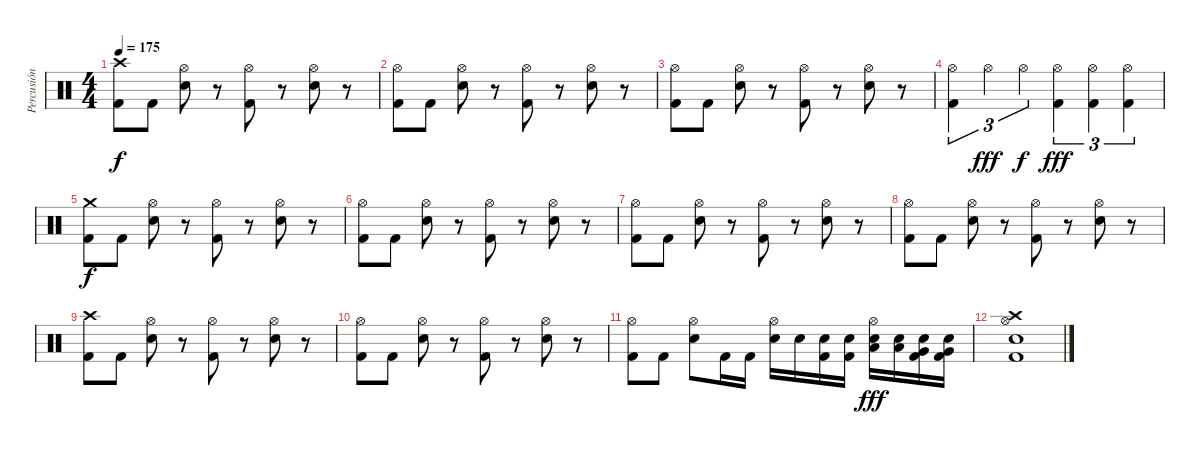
\track ("Percusión" "Percusión") {instrument percussion}
\staff {score}
\articulation defaults
\ts (4 4)
\tempo 175
\clef neutral
\ks c
("Crash high (hit)" "Kick (hit) 2").8{dy f} "Kick (hit) 2".8 ("Hi-Hat (open)" "Electric Snare (hit)").8 r.8 ("Hi-Hat (open)" "Kick (hit) 2").8 r.8 ("Hi-Hat (open)" "Electric Snare (hit)").8 r.8 |
("Hi-Hat (open)" "Kick (hit) 2").8 "Kick (hit) 2".8 ("Hi-Hat (open)" "Electric Snare (hit)").8 r.8 ("Hi-Hat (open)" "Kick (hit) 2").8 r.8 ("Hi-Hat (open)" "Electric Snare (hit)").8 r.8 |
("Hi-Hat (open)" "Kick (hit) 2").8 "Kick (hit) 2".8 ("Hi-Hat (open)" "Electric Snare (hit)").8 r.8 ("Hi-Hat (open)" "Kick (hit) 2").8 r.8 ("Hi-Hat (open)" "Electric Snare (hit)").8 r.8 |
("Hi-Hat (open)" "Kick (hit) 2").4{tu (3 2)} "Hi-Hat (open)".4{tu (3 2) dy fff} "Hi-Hat (open)".4{tu (3 2) dy f} ("Hi-Hat (open)" "Kick (hit) 2").4{tu (3 2) dy fff} ("Hi-Hat (open)" "Kick (hit) 2").4{tu (3 2)} ("Hi-Hat (open)" "Kick (hit) 2").4{tu (3 2)} |
("Crash medium (hit)" "Kick (hit) 2").8{dy f} "Kick (hit) 2".8 ("Hi-Hat (open)" "Electric Snare (hit)").8 r.8 ("Hi-Hat (open)" "Kick (hit) 2").8 r.8 ("Hi-Hat (open)" "Electric Snare (hit)").8 r.8 |
("Hi-Hat (open)" "Kick (hit) 2").8 "Kick (hit) 2".8 ("Hi-Hat (open)" "Electric Snare (hit)").8 r.8 ("Hi-Hat (open)" "Kick (hit) 2").8 r.8 ("Hi-Hat (open)" "Electric Snare (hit)").8 r.8 |
("Hi-Hat (open)" "Kick (hit) 2").8 "Kick (hit) 2".8 ("Hi-Hat (open)" "Electric Snare (hit)").8 r.8 ("Hi-Hat (open)" "Kick (hit) 2").8 r.8 ("Hi-Hat (open)" "Electric Snare (hit)").8 r.8 |
("Hi-Hat (open)" "Kick (hit) 2").8 "Kick (hit) 2".8 ("Hi-Hat (open)" "Electric Snare (hit)").8 r.8 ("Hi-Hat (open)" "Kick (hit) 2").8 r.8 ("Hi-Hat (open)" "Electric Snare (hit)").8 r.8 |
("Crash high (hit)" "Kick (hit) 2").8 "Kick (hit) 2".8 ("Hi-Hat (open)" "Electric Snare (hit)").8 r.8 ("Hi-Hat (open)" "Kick (hit) 2").8 r.8 ("Hi-Hat (open)" "Electric Snare (hit)").8 r.8 |
("Hi-Hat (open)" "Kick (hit) 2").8 "Kick (hit) 2".8 ("Hi-Hat (open)" "Electric Snare (hit)").8 r.8 ("Hi-Hat (open)" "Kick (hit) 2").8 r.8 ("Hi-Hat (open)" "Electric Snare (hit)").8 r.8 |
("Hi-Hat (open)" "Kick (hit) 2").8 "Kick (hit) 2".8 ("Hi-Hat (open)" "Electric Snare (hit)").8 "Kick (hit) 2".16 "Kick (hit) 2".16 ("Hi-Hat (open)" "Electric Snare (hit)").16 "Electric Snare (hit)".16 ("Electric Snare (hit)" "Kick (hit) 2").16 ("Electric Snare (hit)" "Kick (hit) 2").16 ("Hi-Hat (open)" "Electric Snare (hit)" "Low Tom (hit)").16{dy fff} ("Electric Snare (hit)" "Low Tom (hit)").16 ("Electric Snare (hit)" "Very Low Tom (hit)" "Kick (hit) 2").16 ("Electric Snare (hit)" "Very Low Tom (hit)" "Kick (hit) 2").16 |
("Crash high (hit)" "Hi-Hat (open)" "Electric Snare (hit)" "Kick (hit) 2").1
